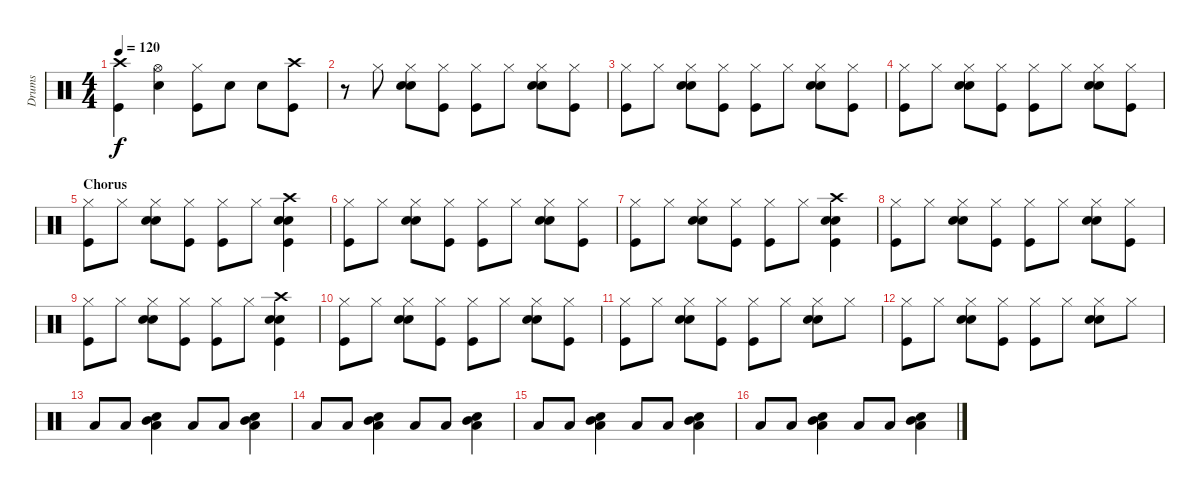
\track ("Drums" "Drums") {instrument percussion}
\staff {score}
\articulation defaults
\ts (4 4)
\tempo 120
\clef neutral
\ks c
("Crash high (hit)" "Kick (hit)").4{dy f} ("Hi-Hat (open)" "Snare (hit) 2").4 ("Hi-Hat (closed)" "Kick (hit)").8 "Snare (hit) 2".8 "Snare (hit) 2".8 ("Crash high (hit)" "Kick (hit)").8 |
r.8 "Hi-Hat (closed)".8 ("Hi-Hat (closed)" "Snare (hit) 2" "Hand Clap (hit)").8 ("Hi-Hat (closed)" "Kick (hit)").8 ("Hi-Hat (closed)" "Kick (hit)").8 "Hi-Hat (closed)".8 ("Hi-Hat (closed)" "Snare (hit) 2" "Hand Clap (hit)").8 ("Hi-Hat (closed)" "Kick (hit)").8 |
("Hi-Hat (closed)" "Kick (hit)").8 "Hi-Hat (closed)".8 ("Hi-Hat (closed)" "Snare (hit) 2" "Hand Clap (hit)").8 ("Hi-Hat (closed)" "Kick (hit)").8 ("Hi-Hat (closed)" "Kick (hit)").8 "Hi-Hat (closed)".8 ("Hi-Hat (closed)" "Snare (hit) 2" "Hand Clap (hit)").8 ("Hi-Hat (closed)" "Kick (hit)").8 |
("Hi-Hat (closed)" "Kick (hit)").8 "Hi-Hat (closed)".8 ("Hi-Hat (closed)" "Snare (hit) 2" "Hand Clap (hit)").8 ("Hi-Hat (closed)" "Kick (hit)").8 ("Hi-Hat (closed)" "Kick (hit)").8 "Hi-Hat (closed)".8 ("Hi-Hat (closed)" "Snare (hit) 2" "Hand Clap (hit)").8 ("Hi-Hat (closed)" "Kick (hit)").8 |
\section ("" "Chorus")
("Hi-Hat (closed)" "Kick (hit)").8 "Hi-Hat (closed)".8 ("Hi-Hat (closed)" "Snare (hit) 2" "Hand Clap (hit)").8 ("Hi-Hat (closed)" "Kick (hit)").8 ("Hi-Hat (closed)" "Kick (hit)").8 "Hi-Hat (closed)".8 ("Crash high (hit)" "Snare (hit) 2" "Hand Clap (hit)" "Kick (hit)").4 |
("Hi-Hat (closed)" "Kick (hit)").8 "Hi-Hat (closed)".8 ("Hi-Hat (closed)" "Snare (hit) 2" "Hand Clap (hit)").8 ("Hi-Hat (closed)" "Kick (hit)").8 ("Hi-Hat (closed)" "Kick (hit)").8 "Hi-Hat (closed)".8 ("Hi-Hat (closed)" "Snare (hit) 2" "Hand Clap (hit)").8 ("Hi-Hat (closed)" "Kick (hit)").8 |
("Hi-Hat (closed)" "Kick (hit)").8 "Hi-Hat (closed)".8 ("Hi-Hat (closed)" "Snare (hit) 2" "Hand Clap (hit)").8 ("Hi-Hat (closed)" "Kick (hit)").8 ("Hi-Hat (closed)" "Kick (hit)").8 "Hi-Hat (closed)".8 ("Crash high (hit)" "Snare (hit) 2" "Hand Clap (hit)" "Kick (hit)").4 |
("Hi-Hat (closed)" "Kick (hit)").8 "Hi-Hat (closed)".8 ("Hi-Hat (closed)" "Snare (hit) 2" "Hand Clap (hit)").8 ("Hi-Hat (closed)" "Kick (hit)").8 ("Hi-Hat (closed)" "Kick (hit)").8 "Hi-Hat (closed)".8 ("Hi-Hat (closed)" "Snare (hit) 2" "Hand Clap (hit)").8 ("Hi-Hat (closed)" "Kick (hit)").8 |
("Hi-Hat (closed)" "Kick (hit)").8 "Hi-Hat (closed)".8 ("Hi-Hat (closed)" "Snare (hit) 2" "Hand Clap (hit)").8 ("Hi-Hat (closed)" "Kick (hit)").8 ("Hi-Hat (closed)" "Kick (hit)").8 "Hi-Hat (closed)".8 ("Crash high (hit)" "Snare (hit) 2" "Hand Clap (hit)" "Kick (hit)").4 |
("Hi-Hat (closed)" "Kick (hit)").8 "Hi-Hat (closed)".8 ("Hi-Hat (closed)" "Snare (hit) 2" "Hand Clap (hit)").8 ("Hi-Hat (closed)" "Kick (hit)").8 ("Hi-Hat (closed)" "Kick (hit)").8 "Hi-Hat (closed)".8 ("Hi-Hat (closed)" "Snare (hit) 2" "Hand Clap (hit)").8 ("Hi-Hat (closed)" "Kick (hit)").8 |
("Hi-Hat (closed)" "Kick (hit)").8 "Hi-Hat (closed)".8 ("Hi-Hat (closed)" "Snare (hit) 2" "Hand Clap (hit)").8 ("Hi-Hat (closed)" "Kick (hit)").8 ("Hi-Hat (closed)" "Kick (hit)").8 "Hi-Hat (closed)".8 ("Hi-Hat (closed)" "Snare (hit) 2" "Hand Clap (hit)").8 "Hi-Hat (closed)".8 |
("Hi-Hat (closed)" "Kick (hit)").8 "Hi-Hat (closed)".8 ("Hi-Hat (closed)" "Snare (hit) 2" "Hand Clap (hit)").8 ("Hi-Hat (closed)" "Kick (hit)").8 ("Hi-Hat (closed)" "Kick (hit)").8 "Hi-Hat (closed)".8 ("Hi-Hat (closed)" "Snare (hit) 2" "Hand Clap (hit)").8 "Hi-Hat (closed)".8 |
"Low Tom (hit)".8 "Low Tom (hit)".8 ("Hand Clap (hit)" "Mid Tom (hit)" "Low Tom (hit)").4 "Low Tom (hit)".8 "Low Tom (hit)".8 ("Hand Clap (hit)" "Mid Tom (hit)" "Low Tom (hit)").4 |
"Low Tom (hit)".8 "Low Tom (hit)".8 ("Hand Clap (hit)" "Mid Tom (hit)" "Low Tom (hit)").4 "Low Tom (hit)".8 "Low Tom (hit)".8 ("Hand Clap (hit)" "Mid Tom (hit)" "Low Tom (hit)").4 |
"Low Tom (hit)".8 "Low Tom (hit)".8 ("Hand Clap (hit)" "Mid Tom (hit)" "Low Tom (hit)").4 "Low Tom (hit)".8 "Low Tom (hit)".8 ("Hand Clap (hit)" "Mid Tom (hit)" "Low Tom (hit)").4 |
"Low Tom (hit)".8 "Low Tom (hit)".8 ("Hand Clap (hit)" "Mid Tom (hit)" "Low Tom (hit)").4 "Low Tom (hit)".8 "Low Tom (hit)".8 ("Hand Clap (hit)" "Mid Tom (hit)" "Low Tom (hit)").4
